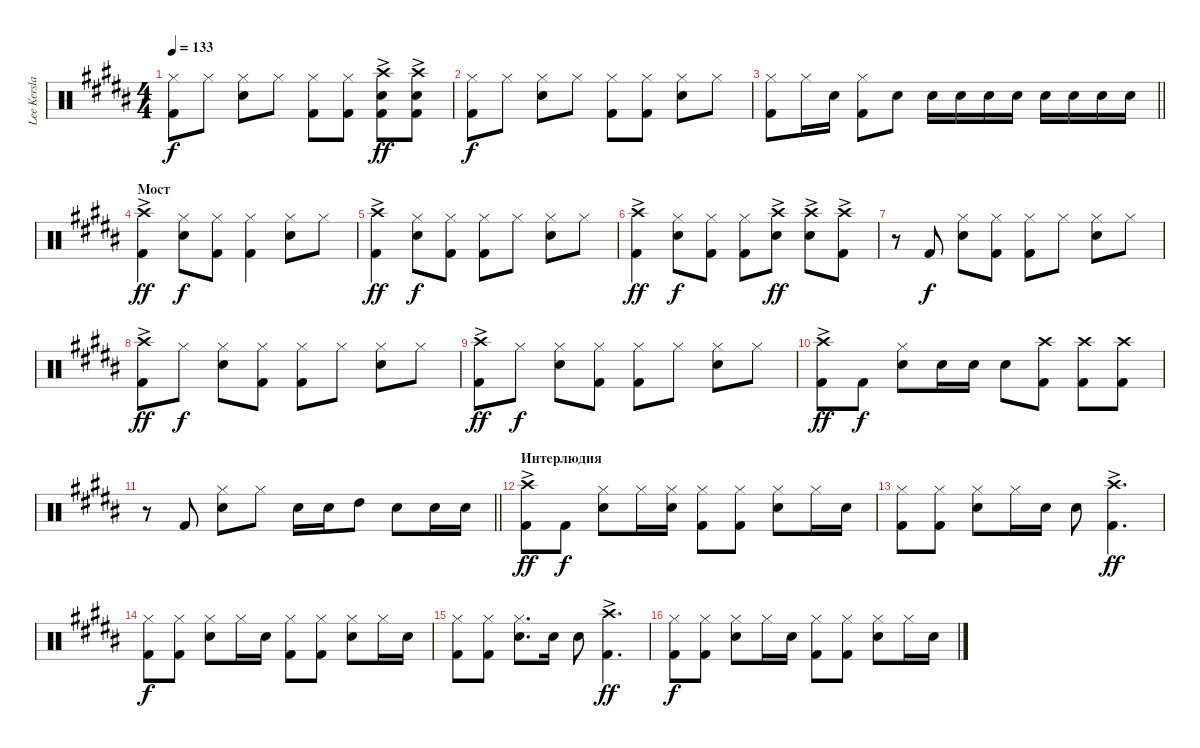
\track ("Lee Kerslake" "Lee Kersla") {instrument percussion}
\staff {score}
\articulation defaults
\ts (4 4)
\tempo 133
\clef neutral
\ks b
("Hi-Hat (closed)" "Kick (hit) 2").8{dy f} "Hi-Hat (closed)".8 ("Snare (hit) 2" "Hi-Hat (closed)").8 "Hi-Hat (closed)".8 ("Hi-Hat (closed)" "Kick (hit) 2").8 ("Hi-Hat (closed)" "Kick (hit) 2").8 ("Crash high (hit)"{ac} "Kick (hit) 2" "Snare (hit) 2").8{dy ff} ("Crash high (hit)"{ac} "Kick (hit) 2" "Snare (hit) 2").8 |
("Hi-Hat (closed)" "Kick (hit) 2").8{dy f} "Hi-Hat (closed)".8 ("Snare (hit) 2" "Hi-Hat (closed)").8 "Hi-Hat (closed)".8 ("Hi-Hat (closed)" "Kick (hit) 2").8 ("Hi-Hat (closed)" "Kick (hit) 2").8 ("Snare (hit) 2" "Hi-Hat (closed)").8 "Hi-Hat (closed)".8 |
\barLineRight lightlight
("Hi-Hat (closed)" "Kick (hit) 2").8 "Hi-Hat (closed)".16 "Snare (hit) 2".16 ("Kick (hit) 2" "Hi-Hat (closed)").8 "Snare (hit) 2".8 "Snare (hit) 2".16 "Snare (hit) 2".16 "Snare (hit) 2".16 "Snare (hit) 2".16 "Snare (hit) 2".16 "Snare (hit) 2".16 "Snare (hit) 2".16 "Snare (hit) 2".16 |
\section ("" "Мост")
("Crash high (hit)"{ac} "Kick (hit) 2").4{dy ff} ("Snare (hit) 2" "Hi-Hat (closed)").8{dy f} ("Hi-Hat (closed)" "Kick (hit) 2").8 ("Hi-Hat (closed)" "Kick (hit) 2").4 ("Snare (hit) 2" "Hi-Hat (closed)").8 "Hi-Hat (closed)".8 |
("Crash high (hit)"{ac} "Kick (hit) 2").4{dy ff} ("Snare (hit) 2" "Hi-Hat (closed)").8{dy f} ("Hi-Hat (closed)" "Kick (hit) 2").8 ("Hi-Hat (closed)" "Kick (hit) 2").8 "Hi-Hat (closed)".8 ("Snare (hit) 2" "Hi-Hat (closed)").8 "Hi-Hat (closed)".8 |
("Crash high (hit)"{ac} "Kick (hit) 2").4{dy ff} ("Snare (hit) 2" "Hi-Hat (closed)").8{dy f} ("Hi-Hat (closed)" "Kick (hit) 2").8 ("Hi-Hat (closed)" "Kick (hit) 2").8 ("Snare (hit) 2" "Crash high (hit)"{ac}).8{dy ff} ("Snare (hit) 2" "Crash high (hit)"{ac}).8 ("Crash high (hit)"{ac} "Kick (hit) 2").8 |
r.8 "Kick (hit) 2".8{dy f} ("Snare (hit) 2" "Hi-Hat (closed)").8 ("Hi-Hat (closed)" "Kick (hit) 2").8 ("Hi-Hat (closed)" "Kick (hit) 2").8 "Hi-Hat (closed)".8 ("Snare (hit) 2" "Hi-Hat (closed)").8 "Hi-Hat (closed)".8 |
("Kick (hit) 2" "Crash high (hit)"{ac}).8{dy ff} "Hi-Hat (closed)".8{dy f} ("Snare (hit) 2" "Hi-Hat (closed)").8 ("Hi-Hat (closed)" "Kick (hit) 2").8 ("Hi-Hat (closed)" "Kick (hit) 2").8 "Hi-Hat (closed)".8 ("Snare (hit) 2" "Hi-Hat (closed)").8 "Hi-Hat (closed)".8 |
("Kick (hit) 2" "Crash high (hit)"{ac}).8{dy ff} "Hi-Hat (closed)".8{dy f} ("Snare (hit) 2" "Hi-Hat (closed)").8 ("Hi-Hat (closed)" "Kick (hit) 2").8 ("Hi-Hat (closed)" "Kick (hit) 2").8 "Hi-Hat (closed)".8 ("Snare (hit) 2" "Hi-Hat (closed)").8 "Hi-Hat (closed)".8 |
("Kick (hit) 2" "Crash high (hit)"{ac}).8{dy ff} "Kick (hit) 2".8{dy f} ("Snare (hit) 2" "Hi-Hat (closed)").8 "Snare (hit) 2".16 "Snare (hit) 2".16 "Snare (hit) 2".8 ("Kick (hit) 2" "Crash high (hit)").8 ("Kick (hit) 2" "Crash high (hit)").8 ("Kick (hit) 2" "Crash high (hit)").8 |
\barLineRight lightlight
r.8 "Kick (hit) 2".8 ("Snare (hit) 2" "Hi-Hat (closed)").8 "Hi-Hat (closed)".8 "Snare (hit) 2".16 "Snare (hit) 2".16 "High Tom (hit)".8 "Snare (hit) 2".8 "Snare (hit) 2".16 "Snare (hit) 2".16 |
\section ("" "Интерлюдия")
("Kick (hit) 2" "Crash high (hit)"{ac}).8{dy ff} "Kick (hit) 2".8{dy f} ("Snare (hit) 2" "Hi-Hat (closed)").8 "Hi-Hat (closed)".16 ("Hi-Hat (closed)" "Snare (hit) 2").16 ("Kick (hit) 2" "Hi-Hat (closed)").8 ("Kick (hit) 2" "Hi-Hat (closed)").8 ("Snare (hit) 2" "Hi-Hat (closed)").8 "Hi-Hat (closed)".16 "Snare (hit) 2".16 |
("Kick (hit) 2" "Hi-Hat (closed)").8 ("Kick (hit) 2" "Hi-Hat (closed)").8 ("Snare (hit) 2" "Hi-Hat (closed)").8 "Hi-Hat (closed)".16 "Snare (hit) 2".16 "Snare (hit) 2".8 ("Kick (hit) 2" "Crash high (hit)"{ac}).4{d dy ff} |
("Kick (hit) 2" "Hi-Hat (closed)").8{dy f} ("Kick (hit) 2" "Hi-Hat (closed)").8 ("Snare (hit) 2" "Hi-Hat (closed)").8 "Hi-Hat (closed)".16 "Snare (hit) 2".16 ("Kick (hit) 2" "Hi-Hat (closed)").8 ("Kick (hit) 2" "Hi-Hat (closed)").8 ("Snare (hit) 2" "Hi-Hat (closed)").8 "Hi-Hat (closed)".16 "Snare (hit) 2".16 |
("Kick (hit) 2" "Hi-Hat (closed)").8 ("Kick (hit) 2" "Hi-Hat (closed)").8 ("Snare (hit) 2" "Hi-Hat (closed)").8{d} "Snare (hit) 2".16 "Snare (hit) 2".8 ("Kick (hit) 2" "Crash high (hit)"{ac}).4{d dy ff} |
("Kick (hit) 2" "Hi-Hat (closed)").8{dy f} ("Kick (hit) 2" "Hi-Hat (closed)").8 ("Snare (hit) 2" "Hi-Hat (closed)").8 "Hi-Hat (closed)".16 "Snare (hit) 2".16 ("Kick (hit) 2" "Hi-Hat (closed)").8 ("Kick (hit) 2" "Hi-Hat (closed)").8 ("Snare (hit) 2" "Hi-Hat (closed)").8 "Hi-Hat (closed)".16 "Snare (hit) 2".16
